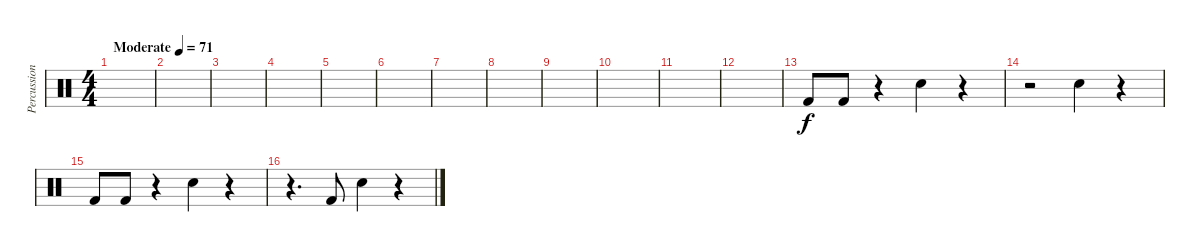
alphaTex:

\track ("Percussion" "Percussion") {instrument percussion}
\staff {score}
\articulation defaults
\ts (4 4)
\tempo (71 "Moderate")
\clef neutral
\ks c
|
|
|
|
|
|
|
|
|
|
|
|
"Kick (hit) 2".8 "Kick (hit) 2".8 r.4 "Snare (hit) 2".4 r.4 |
r.2 "Snare (hit) 2".4 r.4 |
"Kick (hit) 2".8 "Kick (hit) 2".8 r.4 "Snare (hit) 2".4 r.4 |
r.4{d} "Kick (hit) 2".8 "Snare (hit) 2".4 r.4
